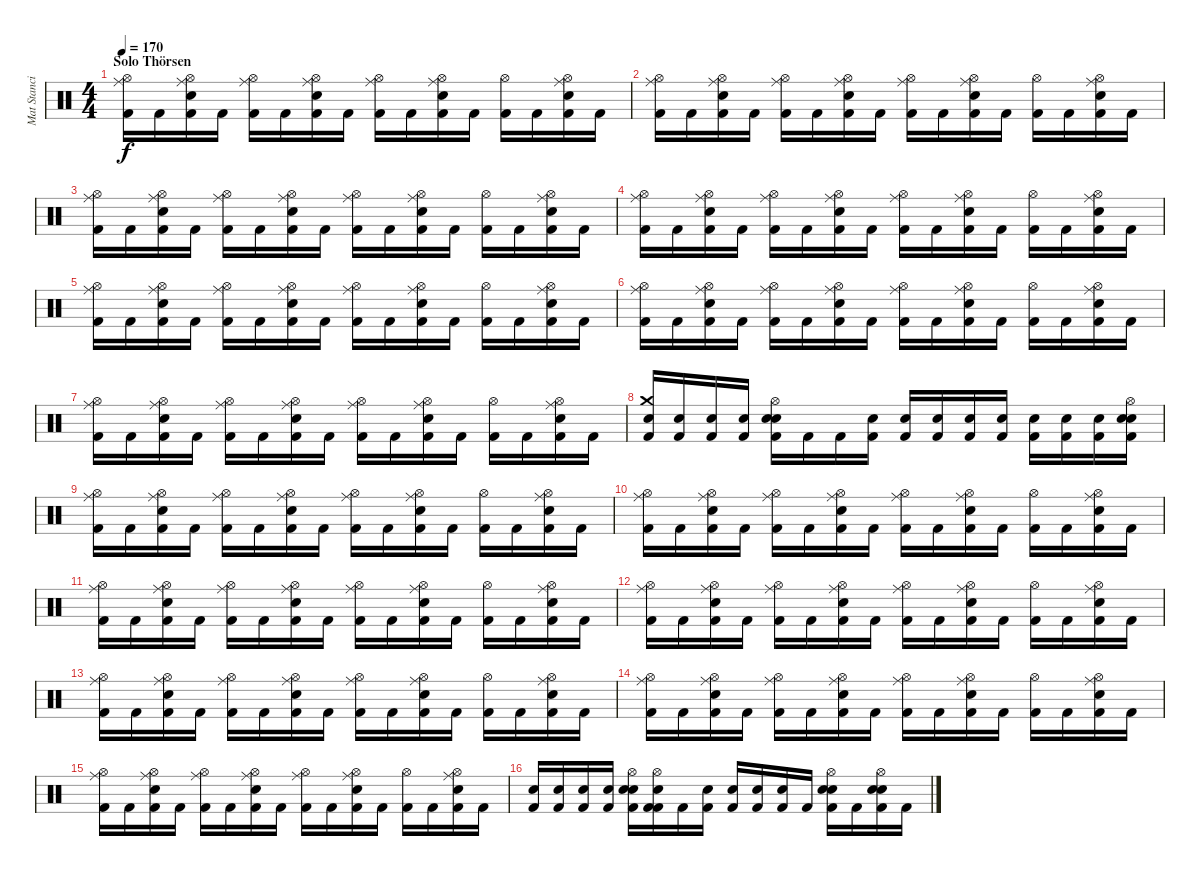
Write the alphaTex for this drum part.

\track ("Mat Stancioiu" "Mat Stanci") {instrument percussion}
\staff {score}
\articulation defaults
\ts (4 4)
\section ("" "Solo Thörsen")
\tempo 170
\clef neutral
\ks c
("Hi-Hat (open)" "Kick (hit) 2" "Ride (middle)").16{dy f} "Kick (hit) 2".16 ("Electric Snare (hit)" "Hi-Hat (open)" "Kick (hit) 2" "Ride (middle)").16 "Kick (hit) 2".16 ("Hi-Hat (open)" "Kick (hit) 2" "Ride (middle)").16 "Kick (hit) 2".16 ("Electric Snare (hit)" "Hi-Hat (open)" "Kick (hit) 2" "Ride (middle)").16 "Kick (hit) 2".16 ("Hi-Hat (open)" "Kick (hit) 2" "Ride (middle)").16 "Kick (hit) 2".16 ("Electric Snare (hit)" "Hi-Hat (open)" "Kick (hit) 2" "Ride (middle)").16 "Kick (hit) 2".16 ("Hi-Hat (open)" "Kick (hit) 2").16 "Kick (hit) 2".16 ("Electric Snare (hit)" "Hi-Hat (open)" "Kick (hit) 2" "Ride (middle)").16 "Kick (hit) 2".16 |
("Hi-Hat (open)" "Kick (hit) 2" "Ride (middle)").16 "Kick (hit) 2".16 ("Electric Snare (hit)" "Hi-Hat (open)" "Kick (hit) 2" "Ride (middle)").16 "Kick (hit) 2".16 ("Hi-Hat (open)" "Kick (hit) 2" "Ride (middle)").16 "Kick (hit) 2".16 ("Electric Snare (hit)" "Hi-Hat (open)" "Kick (hit) 2" "Ride (middle)").16 "Kick (hit) 2".16 ("Hi-Hat (open)" "Kick (hit) 2" "Ride (middle)").16 "Kick (hit) 2".16 ("Electric Snare (hit)" "Hi-Hat (open)" "Kick (hit) 2" "Ride (middle)").16 "Kick (hit) 2".16 ("Hi-Hat (open)" "Kick (hit) 2").16 "Kick (hit) 2".16 ("Electric Snare (hit)" "Hi-Hat (open)" "Kick (hit) 2" "Ride (middle)").16 "Kick (hit) 2".16 |
("Hi-Hat (open)" "Kick (hit) 2" "Ride (middle)").16 "Kick (hit) 2".16 ("Electric Snare (hit)" "Hi-Hat (open)" "Kick (hit) 2" "Ride (middle)").16 "Kick (hit) 2".16 ("Hi-Hat (open)" "Kick (hit) 2" "Ride (middle)").16 "Kick (hit) 2".16 ("Electric Snare (hit)" "Hi-Hat (open)" "Kick (hit) 2" "Ride (middle)").16 "Kick (hit) 2".16 ("Hi-Hat (open)" "Kick (hit) 2" "Ride (middle)").16 "Kick (hit) 2".16 ("Electric Snare (hit)" "Hi-Hat (open)" "Kick (hit) 2" "Ride (middle)").16 "Kick (hit) 2".16 ("Hi-Hat (open)" "Kick (hit) 2").16 "Kick (hit) 2".16 ("Electric Snare (hit)" "Hi-Hat (open)" "Kick (hit) 2" "Ride (middle)").16 "Kick (hit) 2".16 |
("Hi-Hat (open)" "Kick (hit) 2" "Ride (middle)").16 "Kick (hit) 2".16 ("Electric Snare (hit)" "Hi-Hat (open)" "Kick (hit) 2" "Ride (middle)").16 "Kick (hit) 2".16 ("Hi-Hat (open)" "Kick (hit) 2" "Ride (middle)").16 "Kick (hit) 2".16 ("Electric Snare (hit)" "Hi-Hat (open)" "Kick (hit) 2" "Ride (middle)").16 "Kick (hit) 2".16 ("Hi-Hat (open)" "Kick (hit) 2" "Ride (middle)").16 "Kick (hit) 2".16 ("Electric Snare (hit)" "Hi-Hat (open)" "Kick (hit) 2" "Ride (middle)").16 "Kick (hit) 2".16 ("Hi-Hat (open)" "Kick (hit) 2").16 "Kick (hit) 2".16 ("Electric Snare (hit)" "Hi-Hat (open)" "Kick (hit) 2" "Ride (middle)").16 "Kick (hit) 2".16 |
("Hi-Hat (open)" "Kick (hit) 2" "Ride (middle)").16 "Kick (hit) 2".16 ("Electric Snare (hit)" "Hi-Hat (open)" "Kick (hit) 2" "Ride (middle)").16 "Kick (hit) 2".16 ("Hi-Hat (open)" "Kick (hit) 2" "Ride (middle)").16 "Kick (hit) 2".16 ("Electric Snare (hit)" "Hi-Hat (open)" "Kick (hit) 2" "Ride (middle)").16 "Kick (hit) 2".16 ("Hi-Hat (open)" "Kick (hit) 2" "Ride (middle)").16 "Kick (hit) 2".16 ("Electric Snare (hit)" "Hi-Hat (open)" "Kick (hit) 2" "Ride (middle)").16 "Kick (hit) 2".16 ("Hi-Hat (open)" "Kick (hit) 2").16 "Kick (hit) 2".16 ("Electric Snare (hit)" "Hi-Hat (open)" "Kick (hit) 2" "Ride (middle)").16 "Kick (hit) 2".16 |
("Hi-Hat (open)" "Kick (hit) 2" "Ride (middle)").16 "Kick (hit) 2".16 ("Electric Snare (hit)" "Hi-Hat (open)" "Kick (hit) 2" "Ride (middle)").16 "Kick (hit) 2".16 ("Hi-Hat (open)" "Kick (hit) 2" "Ride (middle)").16 "Kick (hit) 2".16 ("Electric Snare (hit)" "Hi-Hat (open)" "Kick (hit) 2" "Ride (middle)").16 "Kick (hit) 2".16 ("Hi-Hat (open)" "Kick (hit) 2" "Ride (middle)").16 "Kick (hit) 2".16 ("Electric Snare (hit)" "Hi-Hat (open)" "Kick (hit) 2" "Ride (middle)").16 "Kick (hit) 2".16 ("Hi-Hat (open)" "Kick (hit) 2").16 "Kick (hit) 2".16 ("Electric Snare (hit)" "Hi-Hat (open)" "Kick (hit) 2" "Ride (middle)").16 "Kick (hit) 2".16 |
("Hi-Hat (open)" "Kick (hit) 2" "Ride (middle)").16 "Kick (hit) 2".16 ("Electric Snare (hit)" "Hi-Hat (open)" "Kick (hit) 2" "Ride (middle)").16 "Kick (hit) 2".16 ("Hi-Hat (open)" "Kick (hit) 2" "Ride (middle)").16 "Kick (hit) 2".16 ("Electric Snare (hit)" "Hi-Hat (open)" "Kick (hit) 2" "Ride (middle)").16 "Kick (hit) 2".16 ("Hi-Hat (open)" "Kick (hit) 2" "Ride (middle)").16 "Kick (hit) 2".16 ("Electric Snare (hit)" "Hi-Hat (open)" "Kick (hit) 2" "Ride (middle)").16 "Kick (hit) 2".16 ("Hi-Hat (open)" "Kick (hit) 2").16 "Kick (hit) 2".16 ("Electric Snare (hit)" "Hi-Hat (open)" "Kick (hit) 2" "Ride (middle)").16 "Kick (hit) 2".16 |
("Kick (hit) 2" "Crash medium (hit)" "Snare (hit)").16 ("Electric Snare (hit)" "Kick (hit) 2").16 ("Electric Snare (hit)" "Kick (hit) 2").16 ("Electric Snare (hit)" "Kick (hit) 2").16 ("Electric Snare (hit)" "Kick (hit) 2" "Hi-Hat (open)" "Snare (hit)").16 "Kick (hit) 2".16 "Kick (hit) 2".16 ("Electric Snare (hit)" "Kick (hit) 2").16 ("Electric Snare (hit)" "Kick (hit) 2").16 ("Electric Snare (hit)" "Kick (hit) 2").16 ("Electric Snare (hit)" "Kick (hit) 2").16 ("Electric Snare (hit)" "Kick (hit) 2").16 ("Electric Snare (hit)" "Kick (hit) 2").16 ("Electric Snare (hit)" "Kick (hit) 2").16 ("Electric Snare (hit)" "Kick (hit) 2").16 ("Electric Snare (hit)" "Kick (hit) 2" "Hi-Hat (open)" "Snare (hit)").16 |
("Hi-Hat (open)" "Kick (hit) 2" "Ride (middle)").16 "Kick (hit) 2".16 ("Electric Snare (hit)" "Hi-Hat (open)" "Kick (hit) 2" "Ride (middle)").16 "Kick (hit) 2".16 ("Hi-Hat (open)" "Kick (hit) 2" "Ride (middle)").16 "Kick (hit) 2".16 ("Electric Snare (hit)" "Hi-Hat (open)" "Kick (hit) 2" "Ride (middle)").16 "Kick (hit) 2".16 ("Hi-Hat (open)" "Kick (hit) 2" "Ride (middle)").16 "Kick (hit) 2".16 ("Electric Snare (hit)" "Hi-Hat (open)" "Kick (hit) 2" "Ride (middle)").16 "Kick (hit) 2".16 ("Hi-Hat (open)" "Kick (hit) 2").16 "Kick (hit) 2".16 ("Electric Snare (hit)" "Hi-Hat (open)" "Kick (hit) 2" "Ride (middle)").16 "Kick (hit) 2".16 |
("Hi-Hat (open)" "Kick (hit) 2" "Ride (middle)").16 "Kick (hit) 2".16 ("Electric Snare (hit)" "Hi-Hat (open)" "Kick (hit) 2" "Ride (middle)").16 "Kick (hit) 2".16 ("Hi-Hat (open)" "Kick (hit) 2" "Ride (middle)").16 "Kick (hit) 2".16 ("Electric Snare (hit)" "Hi-Hat (open)" "Kick (hit) 2" "Ride (middle)").16 "Kick (hit) 2".16 ("Hi-Hat (open)" "Kick (hit) 2" "Ride (middle)").16 "Kick (hit) 2".16 ("Electric Snare (hit)" "Hi-Hat (open)" "Kick (hit) 2" "Ride (middle)").16 "Kick (hit) 2".16 ("Hi-Hat (open)" "Kick (hit) 2").16 "Kick (hit) 2".16 ("Electric Snare (hit)" "Hi-Hat (open)" "Kick (hit) 2" "Ride (middle)").16 "Kick (hit) 2".16 |
("Hi-Hat (open)" "Kick (hit) 2" "Ride (middle)").16 "Kick (hit) 2".16 ("Electric Snare (hit)" "Hi-Hat (open)" "Kick (hit) 2" "Ride (middle)").16 "Kick (hit) 2".16 ("Hi-Hat (open)" "Kick (hit) 2" "Ride (middle)").16 "Kick (hit) 2".16 ("Electric Snare (hit)" "Hi-Hat (open)" "Kick (hit) 2" "Ride (middle)").16 "Kick (hit) 2".16 ("Hi-Hat (open)" "Kick (hit) 2" "Ride (middle)").16 "Kick (hit) 2".16 ("Electric Snare (hit)" "Hi-Hat (open)" "Kick (hit) 2" "Ride (middle)").16 "Kick (hit) 2".16 ("Hi-Hat (open)" "Kick (hit) 2").16 "Kick (hit) 2".16 ("Electric Snare (hit)" "Hi-Hat (open)" "Kick (hit) 2" "Ride (middle)").16 "Kick (hit) 2".16 |
("Hi-Hat (open)" "Kick (hit) 2" "Ride (middle)").16 "Kick (hit) 2".16 ("Electric Snare (hit)" "Hi-Hat (open)" "Kick (hit) 2" "Ride (middle)").16 "Kick (hit) 2".16 ("Hi-Hat (open)" "Kick (hit) 2" "Ride (middle)").16 "Kick (hit) 2".16 ("Electric Snare (hit)" "Hi-Hat (open)" "Kick (hit) 2" "Ride (middle)").16 "Kick (hit) 2".16 ("Hi-Hat (open)" "Kick (hit) 2" "Ride (middle)").16 "Kick (hit) 2".16 ("Electric Snare (hit)" "Hi-Hat (open)" "Kick (hit) 2" "Ride (middle)").16 "Kick (hit) 2".16 ("Hi-Hat (open)" "Kick (hit) 2").16 "Kick (hit) 2".16 ("Electric Snare (hit)" "Hi-Hat (open)" "Kick (hit) 2" "Ride (middle)").16 "Kick (hit) 2".16 |
("Hi-Hat (open)" "Kick (hit) 2" "Ride (middle)").16 "Kick (hit) 2".16 ("Electric Snare (hit)" "Hi-Hat (open)" "Kick (hit) 2" "Ride (middle)").16 "Kick (hit) 2".16 ("Hi-Hat (open)" "Kick (hit) 2" "Ride (middle)").16 "Kick (hit) 2".16 ("Electric Snare (hit)" "Hi-Hat (open)" "Kick (hit) 2" "Ride (middle)").16 "Kick (hit) 2".16 ("Hi-Hat (open)" "Kick (hit) 2" "Ride (middle)").16 "Kick (hit) 2".16 ("Electric Snare (hit)" "Hi-Hat (open)" "Kick (hit) 2" "Ride (middle)").16 "Kick (hit) 2".16 ("Hi-Hat (open)" "Kick (hit) 2").16 "Kick (hit) 2".16 ("Electric Snare (hit)" "Hi-Hat (open)" "Kick (hit) 2" "Ride (middle)").16 "Kick (hit) 2".16 |
("Hi-Hat (open)" "Kick (hit) 2" "Ride (middle)").16 "Kick (hit) 2".16 ("Electric Snare (hit)" "Hi-Hat (open)" "Kick (hit) 2" "Ride (middle)").16 "Kick (hit) 2".16 ("Hi-Hat (open)" "Kick (hit) 2" "Ride (middle)").16 "Kick (hit) 2".16 ("Electric Snare (hit)" "Hi-Hat (open)" "Kick (hit) 2" "Ride (middle)").16 "Kick (hit) 2".16 ("Hi-Hat (open)" "Kick (hit) 2" "Ride (middle)").16 "Kick (hit) 2".16 ("Electric Snare (hit)" "Hi-Hat (open)" "Kick (hit) 2" "Ride (middle)").16 "Kick (hit) 2".16 ("Hi-Hat (open)" "Kick (hit) 2").16 "Kick (hit) 2".16 ("Electric Snare (hit)" "Hi-Hat (open)" "Kick (hit) 2" "Ride (middle)").16 "Kick (hit) 2".16 |
("Hi-Hat (open)" "Kick (hit) 2" "Ride (middle)").16 "Kick (hit) 2".16 ("Electric Snare (hit)" "Hi-Hat (open)" "Kick (hit) 2" "Ride (middle)").16 "Kick (hit) 2".16 ("Hi-Hat (open)" "Kick (hit) 2" "Ride (middle)").16 "Kick (hit) 2".16 ("Electric Snare (hit)" "Hi-Hat (open)" "Kick (hit) 2" "Ride (middle)").16 "Kick (hit) 2".16 ("Hi-Hat (open)" "Kick (hit) 2" "Ride (middle)").16 "Kick (hit) 2".16 ("Electric Snare (hit)" "Hi-Hat (open)" "Kick (hit) 2" "Ride (middle)").16 "Kick (hit) 2".16 ("Hi-Hat (open)" "Kick (hit) 2").16 "Kick (hit) 2".16 ("Electric Snare (hit)" "Hi-Hat (open)" "Kick (hit) 2" "Ride (middle)").16 "Kick (hit) 2".16 |
("Electric Snare (hit)" "Kick (hit) 2").16 ("Electric Snare (hit)" "Kick (hit) 2").16 ("Electric Snare (hit)" "Kick (hit) 2").16 ("Electric Snare (hit)" "Kick (hit) 2").16 ("Electric Snare (hit)" "Kick (hit) 2" "Hi-Hat (open)" "Snare (hit)").16 ("Kick (hit) 2" "Kick (hit) 2" "Hi-Hat (open)" "Snare (hit)").16 "Kick (hit) 2".16 ("Electric Snare (hit)" "Kick (hit) 2").16 ("Electric Snare (hit)" "Kick (hit) 2").16 ("Electric Snare (hit)" "Kick (hit) 2").16 ("Electric Snare (hit)" "Kick (hit) 2").16 "Kick (hit) 2".16 ("Electric Snare (hit)" "Kick (hit) 2" "Hi-Hat (open)" "Snare (hit)").16 "Kick (hit) 2".16 ("Electric Snare (hit)" "Kick (hit) 2" "Hi-Hat (open)" "Snare (hit)").16 "Kick (hit) 2".16
